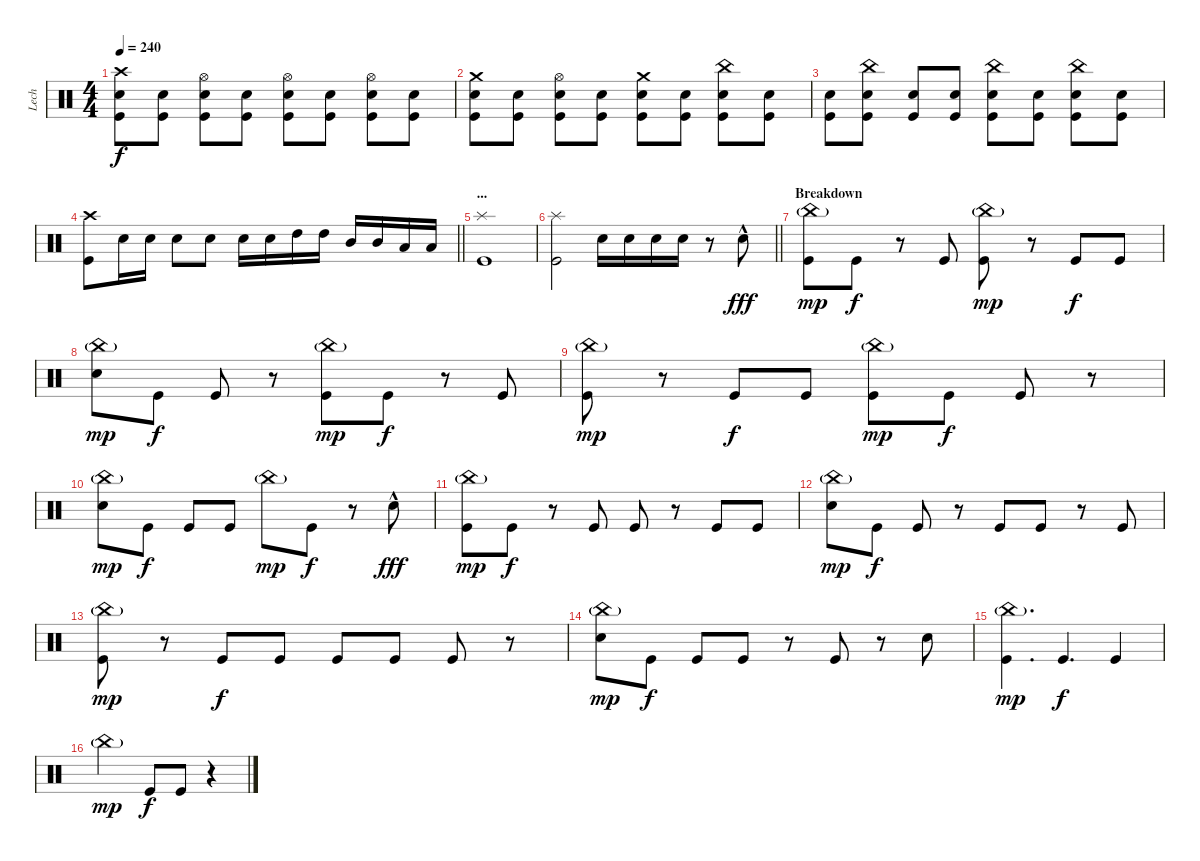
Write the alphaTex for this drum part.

\track ("Lech" "Lech") {instrument percussion}
\staff {score}
\articulation defaults
\ts (4 4)
\tempo 240
\clef neutral
\ks c
("Crash high (hit)" "Snare (hit) 2" "Kick (hit)").8{dy f} ("Snare (hit) 2" "Kick (hit)").8 ("Hi-Hat (open)" "Snare (hit) 2" "Kick (hit)").8 ("Snare (hit) 2" "Kick (hit)").8 ("Hi-Hat (open)" "Snare (hit) 2" "Kick (hit)").8 ("Snare (hit) 2" "Kick (hit)").8 ("Hi-Hat (open)" "Snare (hit) 2" "Kick (hit)").8 ("Snare (hit) 2" "Kick (hit)").8 |
("Crash medium (hit)" "Snare (hit) 2" "Kick (hit)").8 ("Snare (hit) 2" "Kick (hit)").8 ("Hi-Hat (open)" "Snare (hit) 2" "Kick (hit)").8 ("Snare (hit) 2" "Kick (hit)").8 ("Crash medium (hit)" "Snare (hit) 2" "Kick (hit)").8 ("Snare (hit) 2" "Kick (hit)").8 ("China (hit)" "Snare (hit) 2" "Kick (hit)").8 ("Snare (hit) 2" "Kick (hit)").8 |
("Snare (hit) 2" "Kick (hit)").8 ("China (hit)" "Snare (hit) 2" "Kick (hit)").8 ("Snare (hit) 2" "Kick (hit)").8 ("Snare (hit) 2" "Kick (hit)").8 ("China (hit)" "Snare (hit) 2" "Kick (hit)").8 ("Snare (hit) 2" "Kick (hit)").8 ("China (hit)" "Snare (hit) 2" "Kick (hit)").8 ("Snare (hit) 2" "Kick (hit)").8 |
\barLineRight lightlight
("Crash high (hit)" "Kick (hit)").8 "Snare (hit) 2".16 "Snare (hit) 2".16 "Snare (hit) 2".8 "Snare (hit) 2".8 "Snare (hit) 2".16 "Snare (hit) 2".16 "High Tom (hit)".16 "High Tom (hit)".16 "Mid Tom (hit)".16 "Mid Tom (hit)".16 "Low Tom (hit)".16 "Low Tom (hit)".16 |
\section ("" "...")
("Splash (hit)" "Kick (hit)").1 |
\barLineRight lightlight
("Splash (hit)" "Kick (hit)").2 "Snare (hit) 2".16 "Snare (hit) 2".16 "Snare (hit) 2".16 "Snare (hit) 2".16 r.8 "Electric Snare (hit)"{hac}.8{dy fff} |
\section ("" "Breakdown")
("China (hit)"{g} "Kick (hit)").8{dy mp} "Kick (hit)".8{dy f} r.8 "Kick (hit)".8 ("China (hit)"{g} "Kick (hit)").8{dy mp} r.8 "Kick (hit)".8{dy f} "Kick (hit)".8 |
("China (hit)"{g} "Snare (hit) 2").8{dy mp} "Kick (hit)".8{dy f} "Kick (hit)".8 r.8 ("China (hit)"{g} "Kick (hit)").8{dy mp} "Kick (hit)".8{dy f} r.8 "Kick (hit)".8 |
("China (hit)"{g} "Kick (hit)").8{dy mp} r.8 "Kick (hit)".8{dy f} "Kick (hit)".8 ("China (hit)"{g} "Kick (hit)").8{dy mp} "Kick (hit)".8{dy f} "Kick (hit)".8 r.8 |
("China (hit)"{g} "Snare (hit) 2").8{dy mp} "Kick (hit)".8{dy f} "Kick (hit)".8 "Kick (hit)".8 "China (hit)"{g}.8{dy mp} "Kick (hit)".8{dy f} r.8 "Snare (hit) 2"{hac}.8{dy fff} |
("China (hit)"{g} "Kick (hit)").8{dy mp} "Kick (hit)".8{dy f} r.8 "Kick (hit)".8 "Kick (hit)".8 r.8 "Kick (hit)".8 "Kick (hit)".8 |
("China (hit)"{g} "Snare (hit) 2").8{dy mp} "Kick (hit)".8{dy f} "Kick (hit)".8 r.8 "Kick (hit)".8 "Kick (hit)".8 r.8 "Kick (hit)".8 |
("China (hit)"{g} "Kick (hit)").8{dy mp} r.8 "Kick (hit)".8{dy f} "Kick (hit)".8 "Kick (hit)".8 "Kick (hit)".8 "Kick (hit)".8 r.8 |
("China (hit)"{g} "Snare (hit) 2").8{dy mp} "Kick (hit)".8{dy f} "Kick (hit)".8 "Kick (hit)".8 r.8 "Kick (hit)".8 r.8 "Snare (hit) 2".8 |
("China (hit)"{g} "Kick (hit)").4{d dy mp} "Kick (hit)".4{d dy f} "Kick (hit)".4 |
"China (hit)"{g}.2{dy mp} "Kick (hit)".8{dy f} "Kick (hit)".8 r.4
